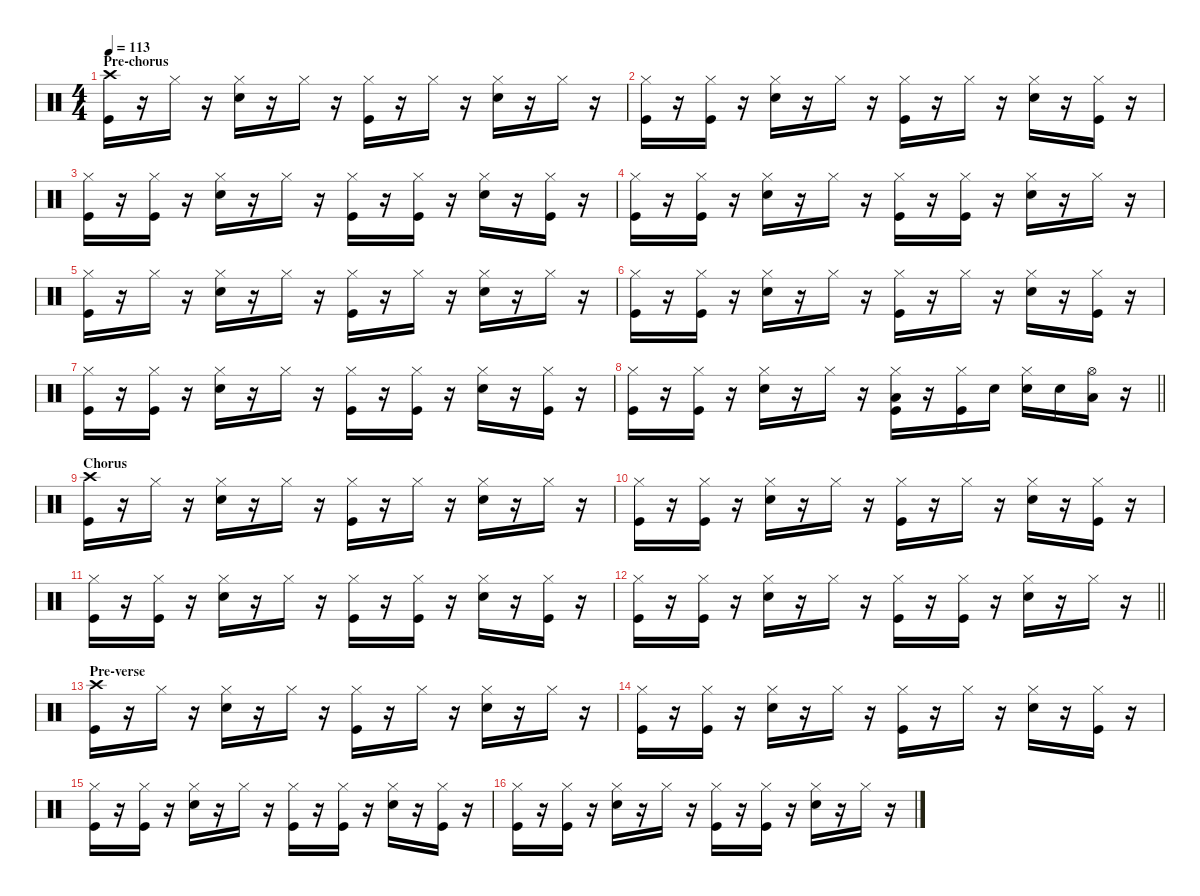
\defaultSystemsLayout 4
\hideDynamics
\bracketExtendMode nobrackets
\singleTrackTrackNamePolicy hidden
\multiTrackTrackNamePolicy hidden
\firstSystemTrackNameMode fullname
\firstSystemTrackNameOrientation horizontal
\otherSystemsTrackNameOrientation horizontal
\track ("Drums" "drm.") {instrument percussion}
\staff {score}
\articulation defaults
\ts (4 4)
\section ("" "Pre-chorus")
\tempo 113
\clef neutral
\ks c
("Kick (hit)" "Crash high (hit)").16{dy fff beam Down} r.16{beam Down} "Hi-Hat (closed)".16{dy mf beam Down} r.16{beam Down} ("Snare (hit) 2" "Hi-Hat (closed)").16{dy fff beam Down} r.16{beam Down} "Hi-Hat (closed)".16{dy mf beam Down} r.16{beam Down} ("Kick (hit)" "Hi-Hat (closed)").16{dy fff beam Down} r.16{beam Down} "Hi-Hat (closed)".16{dy mf beam Down} r.16{beam Down} ("Snare (hit) 2" "Hi-Hat (closed)").16{dy fff beam Down} r.16{beam Down} "Hi-Hat (closed)".16{dy mf beam Down} r.16{beam Down} |
("Kick (hit)" "Hi-Hat (closed)").16{dy fff beam Down} r.16{beam Down} ("Kick (hit)" "Hi-Hat (closed)").16{dy ff beam Down} r.16{beam Down} ("Snare (hit) 2" "Hi-Hat (closed)").16{dy fff beam Down} r.16{beam Down} "Hi-Hat (closed)".16{dy mf beam Down} r.16{beam Down} ("Kick (hit)" "Hi-Hat (closed)").16{dy fff beam Down} r.16{beam Down} "Hi-Hat (closed)".16{dy mf beam Down} r.16{beam Down} ("Snare (hit) 2" "Hi-Hat (closed)").16{dy fff beam Down} r.16{beam Down} ("Kick (hit)" "Hi-Hat (closed)").16{dy ff beam Down} r.16{beam Down} |
("Kick (hit)" "Hi-Hat (closed)").16{dy fff beam Down} r.16{beam Down} ("Kick (hit)" "Hi-Hat (closed)").16{dy f beam Down} r.16{beam Down} ("Snare (hit) 2" "Hi-Hat (closed)").16{dy fff beam Down} r.16{beam Down} "Hi-Hat (closed)".16{dy mf beam Down} r.16{beam Down} ("Kick (hit)" "Hi-Hat (closed)").16{dy fff beam Down} r.16{beam Down} ("Kick (hit)" "Hi-Hat (closed)").16{dy ff beam Down} r.16{beam Down} ("Snare (hit) 2" "Hi-Hat (closed)").16{dy fff beam Down} r.16{beam Down} ("Kick (hit)" "Hi-Hat (closed)").16{dy f beam Down} r.16{beam Down} |
("Kick (hit)" "Hi-Hat (closed)").16{dy fff beam Down} r.16{beam Down} ("Kick (hit)" "Hi-Hat (closed)").16{dy ff beam Down} r.16{beam Down} ("Snare (hit) 2" "Hi-Hat (closed)").16{dy fff beam Down} r.16{beam Down} "Hi-Hat (closed)".16{dy mp beam Down} r.16{beam Down} ("Kick (hit)" "Hi-Hat (closed)").16{dy fff beam Down} r.16{beam Down} ("Kick (hit)" "Hi-Hat (closed)").16{dy ff beam Down} r.16{beam Down} ("Snare (hit) 2" "Hi-Hat (closed)").16{dy fff beam Down} r.16{beam Down} "Hi-Hat (closed)".16{dy mp beam Down} r.16{beam Down} |
("Kick (hit)" "Hi-Hat (closed)").16{dy fff beam Down} r.16{beam Down} "Hi-Hat (closed)".16{dy mf beam Down} r.16{beam Down} ("Snare (hit) 2" "Hi-Hat (closed)").16{dy fff beam Down} r.16{beam Down} "Hi-Hat (closed)".16{dy mf beam Down} r.16{beam Down} ("Kick (hit)" "Hi-Hat (closed)").16{dy fff beam Down} r.16{beam Down} "Hi-Hat (closed)".16{dy mf beam Down} r.16{beam Down} ("Snare (hit) 2" "Hi-Hat (closed)").16{dy fff beam Down} r.16{beam Down} "Hi-Hat (closed)".16{dy mf beam Down} r.16{beam Down} |
("Kick (hit)" "Hi-Hat (closed)").16{dy fff beam Down} r.16{beam Down} ("Kick (hit)" "Hi-Hat (closed)").16{dy ff beam Down} r.16{beam Down} ("Snare (hit) 2" "Hi-Hat (closed)").16{dy fff beam Down} r.16{beam Down} "Hi-Hat (closed)".16{dy mf beam Down} r.16{beam Down} ("Kick (hit)" "Hi-Hat (closed)").16{dy fff beam Down} r.16{beam Down} "Hi-Hat (closed)".16{dy mf beam Down} r.16{beam Down} ("Snare (hit) 2" "Hi-Hat (closed)").16{dy fff beam Down} r.16{beam Down} ("Kick (hit)" "Hi-Hat (closed)").16{dy ff beam Down} r.16{beam Down} |
("Kick (hit)" "Hi-Hat (closed)").16{dy fff beam Down} r.16{beam Down} ("Kick (hit)" "Hi-Hat (closed)").16{dy f beam Down} r.16{beam Down} ("Snare (hit) 2" "Hi-Hat (closed)").16{dy fff beam Down} r.16{beam Down} "Hi-Hat (closed)".16{dy mf beam Down} r.16{beam Down} ("Kick (hit)" "Hi-Hat (closed)").16{dy fff beam Down} r.16{beam Down} ("Kick (hit)" "Hi-Hat (closed)").16{dy ff beam Down} r.16{beam Down} ("Snare (hit) 2" "Hi-Hat (closed)").16{dy fff beam Down} r.16{beam Down} ("Kick (hit)" "Hi-Hat (closed)").16{dy f beam Down} r.16{beam Down} |
\barLineRight lightlight
("Kick (hit)" "Hi-Hat (closed)").16{dy fff beam Down} r.16{beam Down} ("Kick (hit)" "Hi-Hat (closed)").16{dy ff beam Down} r.16{beam Down} ("Snare (hit) 2" "Hi-Hat (closed)").16{dy fff beam Down} r.16{beam Down} "Hi-Hat (closed)".16{dy mp beam Down} r.16{beam Down} ("Kick (hit)" "Hi-Hat (closed)" "Low Tom (hit)").16{dy fff beam Down} r.16{beam Down} ("Kick (hit)" "Hi-Hat (closed)").16{dy ff beam Down} "Snare (hit) 2".16{dy f beam Down} ("Snare (hit) 2" "Hi-Hat (closed)").16{dy fff beam Down} "Snare (hit) 2".16{dy ff beam Down} ("Low Tom (hit)" "Hi-Hat (open)").16{beam Down} r.16{beam Down} |
\section ("" "Chorus")
("Kick (hit)" "Crash high (hit)").16{dy fff beam Down} r.16{beam Down} "Hi-Hat (closed)".16{dy mf beam Down} r.16{beam Down} ("Snare (hit) 2" "Hi-Hat (closed)").16{dy fff beam Down} r.16{beam Down} "Hi-Hat (closed)".16{dy mf beam Down} r.16{beam Down} ("Kick (hit)" "Hi-Hat (closed)").16{dy fff beam Down} r.16{beam Down} "Hi-Hat (closed)".16{dy mf beam Down} r.16{beam Down} ("Snare (hit) 2" "Hi-Hat (closed)").16{dy fff beam Down} r.16{beam Down} "Hi-Hat (closed)".16{dy mf beam Down} r.16{beam Down} |
("Kick (hit)" "Hi-Hat (closed)").16{dy fff beam Down} r.16{beam Down} ("Kick (hit)" "Hi-Hat (closed)").16{dy ff beam Down} r.16{beam Down} ("Snare (hit) 2" "Hi-Hat (closed)").16{dy fff beam Down} r.16{beam Down} "Hi-Hat (closed)".16{dy mf beam Down} r.16{beam Down} ("Kick (hit)" "Hi-Hat (closed)").16{dy fff beam Down} r.16{beam Down} "Hi-Hat (closed)".16{dy mf beam Down} r.16{beam Down} ("Snare (hit) 2" "Hi-Hat (closed)").16{dy fff beam Down} r.16{beam Down} ("Kick (hit)" "Hi-Hat (closed)").16{dy ff beam Down} r.16{beam Down} |
("Kick (hit)" "Hi-Hat (closed)").16{dy fff beam Down} r.16{beam Down} ("Kick (hit)" "Hi-Hat (closed)").16{dy f beam Down} r.16{beam Down} ("Snare (hit) 2" "Hi-Hat (closed)").16{dy fff beam Down} r.16{beam Down} "Hi-Hat (closed)".16{dy mf beam Down} r.16{beam Down} ("Kick (hit)" "Hi-Hat (closed)").16{dy fff beam Down} r.16{beam Down} ("Kick (hit)" "Hi-Hat (closed)").16{dy ff beam Down} r.16{beam Down} ("Snare (hit) 2" "Hi-Hat (closed)").16{dy fff beam Down} r.16{beam Down} ("Kick (hit)" "Hi-Hat (closed)").16{dy f beam Down} r.16{beam Down} |
\barLineRight lightlight
("Kick (hit)" "Hi-Hat (closed)").16{dy fff beam Down} r.16{beam Down} ("Kick (hit)" "Hi-Hat (closed)").16{dy ff beam Down} r.16{beam Down} ("Snare (hit) 2" "Hi-Hat (closed)").16{dy fff beam Down} r.16{beam Down} "Hi-Hat (closed)".16{dy mp beam Down} r.16{beam Down} ("Kick (hit)" "Hi-Hat (closed)").16{dy fff beam Down} r.16{beam Down} ("Kick (hit)" "Hi-Hat (closed)").16{dy ff beam Down} r.16{beam Down} ("Snare (hit) 2" "Hi-Hat (closed)").16{dy fff beam Down} r.16{beam Down} "Hi-Hat (closed)".16{dy mp beam Down} r.16{beam Down} |
\section ("" "Pre-verse")
("Kick (hit)" "Crash high (hit)").16{dy fff beam Down} r.16{beam Down} "Hi-Hat (closed)".16{dy mf beam Down} r.16{beam Down} ("Snare (hit) 2" "Hi-Hat (closed)").16{dy fff beam Down} r.16{beam Down} "Hi-Hat (closed)".16{dy mf beam Down} r.16{beam Down} ("Kick (hit)" "Hi-Hat (closed)").16{dy fff beam Down} r.16{beam Down} "Hi-Hat (closed)".16{dy mf beam Down} r.16{beam Down} ("Snare (hit) 2" "Hi-Hat (closed)").16{dy fff beam Down} r.16{beam Down} "Hi-Hat (closed)".16{dy mf beam Down} r.16{beam Down} |
("Kick (hit)" "Hi-Hat (closed)").16{dy fff beam Down} r.16{beam Down} ("Kick (hit)" "Hi-Hat (closed)").16{dy ff beam Down} r.16{beam Down} ("Snare (hit) 2" "Hi-Hat (closed)").16{dy fff beam Down} r.16{beam Down} "Hi-Hat (closed)".16{dy mf beam Down} r.16{beam Down} ("Kick (hit)" "Hi-Hat (closed)").16{dy fff beam Down} r.16{beam Down} "Hi-Hat (closed)".16{dy mf beam Down} r.16{beam Down} ("Snare (hit) 2" "Hi-Hat (closed)").16{dy fff beam Down} r.16{beam Down} ("Kick (hit)" "Hi-Hat (closed)").16{dy ff beam Down} r.16{beam Down} |
("Kick (hit)" "Hi-Hat (closed)").16{dy fff beam Down} r.16{beam Down} ("Kick (hit)" "Hi-Hat (closed)").16{dy f beam Down} r.16{beam Down} ("Snare (hit) 2" "Hi-Hat (closed)").16{dy fff beam Down} r.16{beam Down} "Hi-Hat (closed)".16{dy mf beam Down} r.16{beam Down} ("Kick (hit)" "Hi-Hat (closed)").16{dy fff beam Down} r.16{beam Down} ("Kick (hit)" "Hi-Hat (closed)").16{dy ff beam Down} r.16{beam Down} ("Snare (hit) 2" "Hi-Hat (closed)").16{dy fff beam Down} r.16{beam Down} ("Kick (hit)" "Hi-Hat (closed)").16{dy f beam Down} r.16{beam Down} |
("Kick (hit)" "Hi-Hat (closed)").16{dy fff beam Down} r.16{beam Down} ("Kick (hit)" "Hi-Hat (closed)").16{dy ff beam Down} r.16{beam Down} ("Snare (hit) 2" "Hi-Hat (closed)").16{dy fff beam Down} r.16{beam Down} "Hi-Hat (closed)".16{dy mp beam Down} r.16{beam Down} ("Kick (hit)" "Hi-Hat (closed)").16{dy fff beam Down} r.16{beam Down} ("Kick (hit)" "Hi-Hat (closed)").16{dy ff beam Down} r.16{beam Down} ("Snare (hit) 2" "Hi-Hat (closed)").16{dy fff beam Down} r.16{beam Down} "Hi-Hat (closed)".16{dy mp beam Down} r.16{beam Down}
